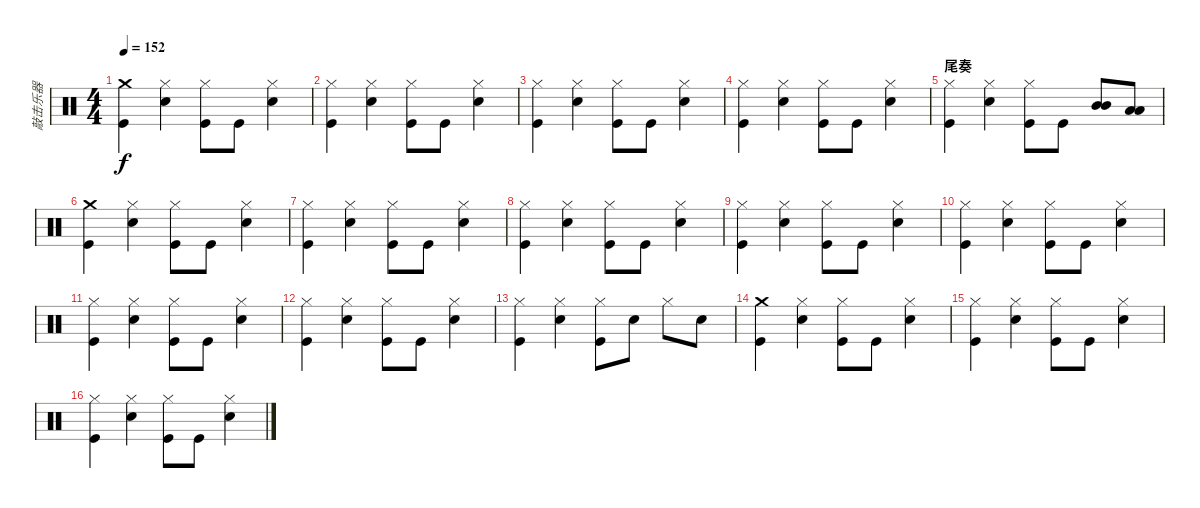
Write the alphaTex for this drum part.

\track ("敲击乐器" "敲击乐器") {instrument percussion}
\staff {score}
\articulation defaults
\ts (4 4)
\tempo 152
\clef neutral
\ks c
("Crash medium (hit)" "Kick (hit)").4{dy f} ("Hi-Hat (closed)" "Electric Snare (hit)").4 ("Hi-Hat (closed)" "Kick (hit)").8 "Kick (hit)".8 ("Hi-Hat (closed)" "Electric Snare (hit)").4 |
("Hi-Hat (closed)" "Kick (hit)").4 ("Hi-Hat (closed)" "Electric Snare (hit)").4 ("Hi-Hat (closed)" "Kick (hit)").8 "Kick (hit)".8 ("Hi-Hat (closed)" "Electric Snare (hit)").4 |
("Hi-Hat (closed)" "Kick (hit)").4 ("Hi-Hat (closed)" "Electric Snare (hit)").4 ("Hi-Hat (closed)" "Kick (hit)").8 "Kick (hit)".8 ("Hi-Hat (closed)" "Electric Snare (hit)").4 |
("Hi-Hat (closed)" "Kick (hit)").4 ("Hi-Hat (closed)" "Electric Snare (hit)").4 ("Hi-Hat (closed)" "Kick (hit)").8 "Kick (hit)".8 ("Hi-Hat (closed)" "Electric Snare (hit)").4 |
\section ("" "尾奏")
("Hi-Hat (closed)" "Kick (hit)").4 ("Hi-Hat (closed)" "Electric Snare (hit)").4 ("Hi-Hat (closed)" "Kick (hit)").8 "Kick (hit)".8 ("Mid Tom (hit)" "Mid Tom (hit)").8 ("Low Tom (hit)" "Low Tom (hit)").8 |
("Crash medium (hit)" "Kick (hit)").4 ("Hi-Hat (closed)" "Electric Snare (hit)").4 ("Hi-Hat (closed)" "Kick (hit)").8 "Kick (hit)".8 ("Hi-Hat (closed)" "Electric Snare (hit)").4 |
("Hi-Hat (closed)" "Kick (hit)").4 ("Hi-Hat (closed)" "Electric Snare (hit)").4 ("Hi-Hat (closed)" "Kick (hit)").8 "Kick (hit)".8 ("Hi-Hat (closed)" "Electric Snare (hit)").4 |
("Hi-Hat (closed)" "Kick (hit)").4 ("Hi-Hat (closed)" "Electric Snare (hit)").4 ("Hi-Hat (closed)" "Kick (hit)").8 "Kick (hit)".8 ("Hi-Hat (closed)" "Electric Snare (hit)").4 |
("Hi-Hat (closed)" "Kick (hit)").4 ("Hi-Hat (closed)" "Electric Snare (hit)").4 ("Hi-Hat (closed)" "Kick (hit)").8 "Kick (hit)".8 ("Hi-Hat (closed)" "Electric Snare (hit)").4 |
("Hi-Hat (closed)" "Kick (hit)").4 ("Hi-Hat (closed)" "Electric Snare (hit)").4 ("Hi-Hat (closed)" "Kick (hit)").8 "Kick (hit)".8 ("Hi-Hat (closed)" "Electric Snare (hit)").4 |
("Hi-Hat (closed)" "Kick (hit)").4 ("Hi-Hat (closed)" "Electric Snare (hit)").4 ("Hi-Hat (closed)" "Kick (hit)").8 "Kick (hit)".8 ("Hi-Hat (closed)" "Electric Snare (hit)").4 |
("Hi-Hat (closed)" "Kick (hit)").4 ("Hi-Hat (closed)" "Electric Snare (hit)").4 ("Hi-Hat (closed)" "Kick (hit)").8 "Kick (hit)".8 ("Hi-Hat (closed)" "Electric Snare (hit)").4 |
("Hi-Hat (closed)" "Kick (hit)").4 ("Hi-Hat (closed)" "Electric Snare (hit)").4 ("Hi-Hat (closed)" "Kick (hit)").8 "Electric Snare (hit)".8 "Hi-Hat (closed)".8 "Electric Snare (hit)".8 |
("Crash medium (hit)" "Kick (hit)").4 ("Hi-Hat (closed)" "Electric Snare (hit)").4 ("Hi-Hat (closed)" "Kick (hit)").8 "Kick (hit)".8 ("Hi-Hat (closed)" "Electric Snare (hit)").4 |
("Hi-Hat (closed)" "Kick (hit)").4 ("Hi-Hat (closed)" "Electric Snare (hit)").4 ("Hi-Hat (closed)" "Kick (hit)").8 "Kick (hit)".8 ("Hi-Hat (closed)" "Electric Snare (hit)").4 |
("Hi-Hat (closed)" "Kick (hit)").4 ("Hi-Hat (closed)" "Electric Snare (hit)").4 ("Hi-Hat (closed)" "Kick (hit)").8 "Kick (hit)".8 ("Hi-Hat (closed)" "Electric Snare (hit)").4
